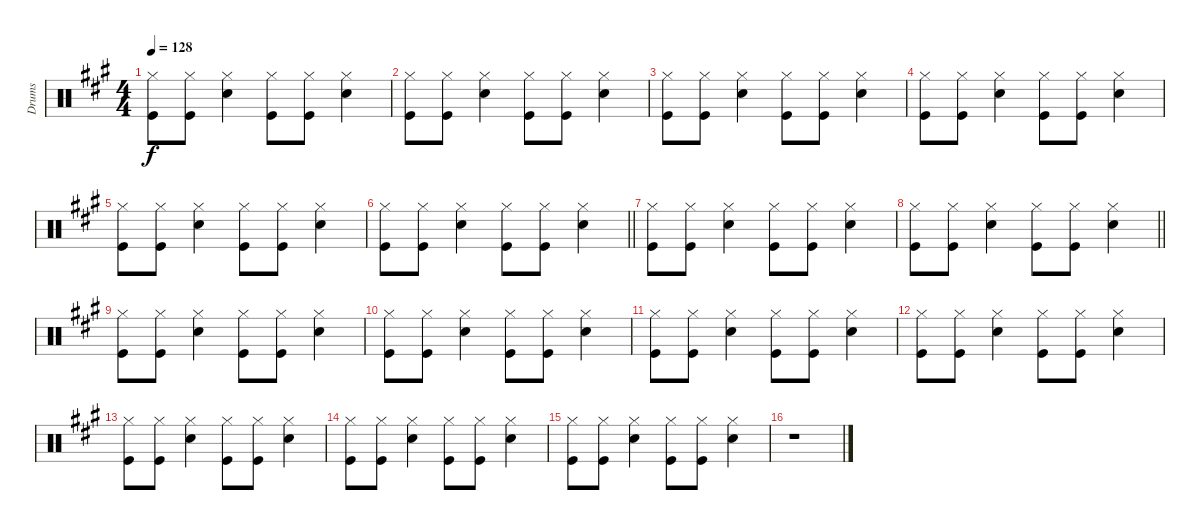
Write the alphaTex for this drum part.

\track ("Drums" "Drums") {instrument percussion}
\staff {score}
\articulation defaults
\ts (4 4)
\tempo 128
\clef neutral
\ks a
("Hi-Hat (closed)" "Kick (hit)").8{dy f} ("Hi-Hat (closed)" "Kick (hit)").8 ("Hi-Hat (closed)" "Snare (hit) 2").4 ("Hi-Hat (closed)" "Kick (hit)").8 ("Hi-Hat (closed)" "Kick (hit)").8 ("Hi-Hat (closed)" "Snare (hit) 2").4 |
("Hi-Hat (closed)" "Kick (hit)").8 ("Hi-Hat (closed)" "Kick (hit)").8 ("Hi-Hat (closed)" "Snare (hit) 2").4 ("Hi-Hat (closed)" "Kick (hit)").8 ("Hi-Hat (closed)" "Kick (hit)").8 ("Hi-Hat (closed)" "Snare (hit) 2").4 |
("Hi-Hat (closed)" "Kick (hit)").8 ("Hi-Hat (closed)" "Kick (hit)").8 ("Hi-Hat (closed)" "Snare (hit) 2").4 ("Hi-Hat (closed)" "Kick (hit)").8 ("Hi-Hat (closed)" "Kick (hit)").8 ("Hi-Hat (closed)" "Snare (hit) 2").4 |
("Hi-Hat (closed)" "Kick (hit)").8 ("Hi-Hat (closed)" "Kick (hit)").8 ("Hi-Hat (closed)" "Snare (hit) 2").4 ("Hi-Hat (closed)" "Kick (hit)").8 ("Hi-Hat (closed)" "Kick (hit)").8 ("Hi-Hat (closed)" "Snare (hit) 2").4 |
("Hi-Hat (closed)" "Kick (hit)").8 ("Hi-Hat (closed)" "Kick (hit)").8 ("Hi-Hat (closed)" "Snare (hit) 2").4 ("Hi-Hat (closed)" "Kick (hit)").8 ("Hi-Hat (closed)" "Kick (hit)").8 ("Hi-Hat (closed)" "Snare (hit) 2").4 |
\barLineRight lightlight
("Hi-Hat (closed)" "Kick (hit)").8 ("Hi-Hat (closed)" "Kick (hit)").8 ("Hi-Hat (closed)" "Snare (hit) 2").4 ("Hi-Hat (closed)" "Kick (hit)").8 ("Hi-Hat (closed)" "Kick (hit)").8 ("Hi-Hat (closed)" "Snare (hit) 2").4 |
("Hi-Hat (closed)" "Kick (hit)").8 ("Hi-Hat (closed)" "Kick (hit)").8 ("Hi-Hat (closed)" "Snare (hit) 2").4 ("Hi-Hat (closed)" "Kick (hit)").8 ("Hi-Hat (closed)" "Kick (hit)").8 ("Hi-Hat (closed)" "Snare (hit) 2").4 |
\barLineRight lightlight
("Hi-Hat (closed)" "Kick (hit)").8 ("Hi-Hat (closed)" "Kick (hit)").8 ("Hi-Hat (closed)" "Snare (hit) 2").4 ("Hi-Hat (closed)" "Kick (hit)").8 ("Hi-Hat (closed)" "Kick (hit)").8 ("Hi-Hat (closed)" "Snare (hit) 2").4 |
("Hi-Hat (closed)" "Kick (hit)").8 ("Hi-Hat (closed)" "Kick (hit)").8 ("Hi-Hat (closed)" "Snare (hit) 2").4 ("Hi-Hat (closed)" "Kick (hit)").8 ("Hi-Hat (closed)" "Kick (hit)").8 ("Hi-Hat (closed)" "Snare (hit) 2").4 |
("Hi-Hat (closed)" "Kick (hit)").8 ("Hi-Hat (closed)" "Kick (hit)").8 ("Hi-Hat (closed)" "Snare (hit) 2").4 ("Hi-Hat (closed)" "Kick (hit)").8 ("Hi-Hat (closed)" "Kick (hit)").8 ("Hi-Hat (closed)" "Snare (hit) 2").4 |
("Hi-Hat (closed)" "Kick (hit)").8 ("Hi-Hat (closed)" "Kick (hit)").8 ("Hi-Hat (closed)" "Snare (hit) 2").4 ("Hi-Hat (closed)" "Kick (hit)").8 ("Hi-Hat (closed)" "Kick (hit)").8 ("Hi-Hat (closed)" "Snare (hit) 2").4 |
("Hi-Hat (closed)" "Kick (hit)").8 ("Hi-Hat (closed)" "Kick (hit)").8 ("Hi-Hat (closed)" "Snare (hit) 2").4 ("Hi-Hat (closed)" "Kick (hit)").8 ("Hi-Hat (closed)" "Kick (hit)").8 ("Hi-Hat (closed)" "Snare (hit) 2").4 |
("Hi-Hat (closed)" "Kick (hit)").8 ("Hi-Hat (closed)" "Kick (hit)").8 ("Hi-Hat (closed)" "Snare (hit) 2").4 ("Hi-Hat (closed)" "Kick (hit)").8 ("Hi-Hat (closed)" "Kick (hit)").8 ("Hi-Hat (closed)" "Snare (hit) 2").4 |
("Hi-Hat (closed)" "Kick (hit)").8 ("Hi-Hat (closed)" "Kick (hit)").8 ("Hi-Hat (closed)" "Snare (hit) 2").4 ("Hi-Hat (closed)" "Kick (hit)").8 ("Hi-Hat (closed)" "Kick (hit)").8 ("Hi-Hat (closed)" "Snare (hit) 2").4 |
("Hi-Hat (closed)" "Kick (hit)").8 ("Hi-Hat (closed)" "Kick (hit)").8 ("Hi-Hat (closed)" "Snare (hit) 2").4 ("Hi-Hat (closed)" "Kick (hit)").8 ("Hi-Hat (closed)" "Kick (hit)").8 ("Hi-Hat (closed)" "Snare (hit) 2").4 |
r.1
